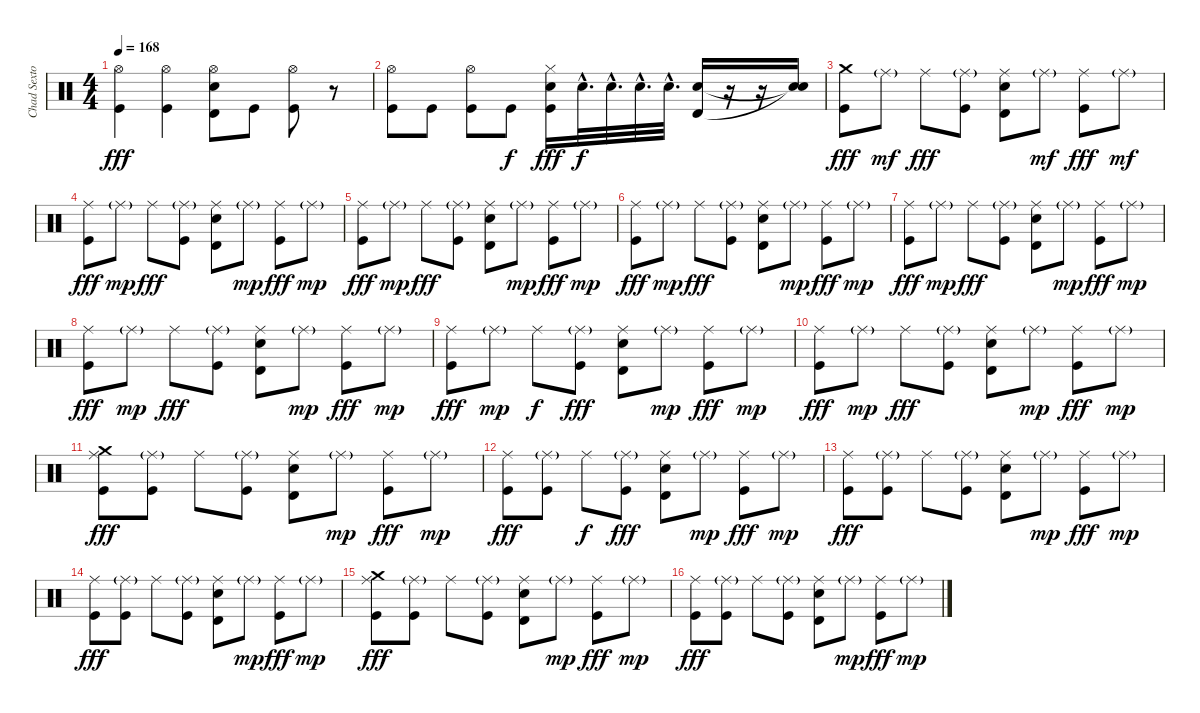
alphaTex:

\track ("Chad Sexton" "Chad Sexto") {instrument percussion}
\staff {score}
\articulation defaults
\ts (4 4)
\tempo 168
\clef neutral
\ks c
("Hi-Hat (open)" "Kick (hit)").4{dy fff} ("Hi-Hat (open)" "Kick (hit)").4 ("Hi-Hat (open)" "Electric Snare (hit)" "Timbale high (hit)").8 "Kick (hit)".8 ("Hi-Hat (open)" "Kick (hit)").8 r.8 |
("Hi-Hat (open)" "Kick (hit)").8 "Kick (hit)".8 ("Hi-Hat (open)" "Kick (hit)").8 "Kick (hit)".8{dy f} ("Hi-Hat (closed)" "Electric Snare (hit)" "Kick (hit)").16{dy fff} "Electric Snare (hit)"{hac}.32{d dy f} "Electric Snare (hit)"{hac}.32{d} "Electric Snare (hit)"{hac}.32{d} "Electric Snare (hit)"{hac}.32{d} ("Electric Snare (hit)" "Timbale high (hit)").16 r.16 r.16 ("Snare (hit)"{t} "Snare (hit)"{t}).16 |
("Crash medium (hit)" "Kick (hit)").8{dy fff} "Ride (middle)"{g}.8{dy mf} "Ride (middle)".8{dy fff} ("Ride (middle)"{g} "Kick (hit)").8 ("Ride (middle)" "Electric Snare (hit)" "Timbale high (hit)").8 "Ride (middle)"{g}.8{dy mf} ("Ride (middle)" "Kick (hit)").8{dy fff} "Ride (middle)"{g}.8{dy mf} |
("Ride (middle)" "Kick (hit)").8{dy fff} "Ride (middle)"{g}.8{dy mp} "Ride (middle)".8{dy fff} ("Ride (middle)"{g} "Kick (hit)").8 ("Ride (middle)" "Electric Snare (hit)" "Timbale high (hit)").8 "Ride (middle)"{g}.8{dy mp} ("Ride (middle)" "Kick (hit)").8{dy fff} "Ride (middle)"{g}.8{dy mp} |
("Ride (middle)" "Kick (hit)").8{dy fff} "Ride (middle)"{g}.8{dy mp} "Ride (middle)".8{dy fff} ("Ride (middle)"{g} "Kick (hit)").8 ("Ride (middle)" "Electric Snare (hit)" "Timbale high (hit)").8 "Ride (middle)"{g}.8{dy mp} ("Ride (middle)" "Kick (hit)").8{dy fff} "Ride (middle)"{g}.8{dy mp} |
("Ride (middle)" "Kick (hit)").8{dy fff} "Ride (middle)"{g}.8{dy mp} "Ride (middle)".8{dy fff} ("Ride (middle)"{g} "Kick (hit)").8 ("Ride (middle)" "Electric Snare (hit)" "Timbale high (hit)").8 "Ride (middle)"{g}.8{dy mp} ("Ride (middle)" "Kick (hit)").8{dy fff} "Ride (middle)"{g}.8{dy mp} |
("Ride (middle)" "Kick (hit)").8{dy fff} "Ride (middle)"{g}.8{dy mp} "Ride (middle)".8{dy fff} ("Ride (middle)"{g} "Kick (hit)").8 ("Ride (middle)" "Electric Snare (hit)" "Timbale high (hit)").8 "Ride (middle)"{g}.8{dy mp} ("Ride (middle)" "Kick (hit)").8{dy fff} "Ride (middle)"{g}.8{dy mp} |
("Ride (middle)" "Kick (hit)").8{dy fff} "Ride (middle)"{g}.8{dy mp} "Ride (middle)".8{dy fff} ("Ride (middle)"{g} "Kick (hit)").8 ("Ride (middle)" "Electric Snare (hit)" "Timbale high (hit)").8 "Ride (middle)"{g}.8{dy mp} ("Ride (middle)" "Kick (hit)").8{dy fff} "Ride (middle)"{g}.8{dy mp} |
("Ride (middle)" "Kick (hit)").8{dy fff} "Ride (middle)"{g}.8{dy mp} "Ride (middle)".8{dy f} ("Ride (middle)"{g} "Kick (hit)").8{dy fff} ("Ride (middle)" "Electric Snare (hit)" "Timbale high (hit)").8 "Ride (middle)"{g}.8{dy mp} ("Ride (middle)" "Kick (hit)").8{dy fff} "Ride (middle)"{g}.8{dy mp} |
("Ride (middle)" "Kick (hit)").8{dy fff} "Ride (middle)"{g}.8{dy mp} "Ride (middle)".8{dy fff} ("Ride (middle)"{g} "Kick (hit)").8 ("Ride (middle)" "Electric Snare (hit)" "Timbale high (hit)").8 "Ride (middle)"{g}.8{dy mp} ("Ride (middle)" "Kick (hit)").8{dy fff} "Ride (middle)"{g}.8{dy mp} |
("Crash medium (hit)" "Ride (middle)" "Kick (hit)").8{dy fff} ("Ride (middle)"{g} "Kick (hit)").8 "Ride (middle)".8 ("Ride (middle)"{g} "Kick (hit)").8 ("Ride (middle)" "Electric Snare (hit)" "Timbale high (hit)").8 "Ride (middle)"{g}.8{dy mp} ("Ride (middle)" "Kick (hit)").8{dy fff} "Ride (middle)"{g}.8{dy mp} |
("Ride (middle)" "Kick (hit)").8{dy fff} ("Ride (middle)"{g} "Kick (hit)").8 "Ride (middle)".8{dy f} ("Ride (middle)"{g} "Kick (hit)").8{dy fff} ("Ride (middle)" "Electric Snare (hit)" "Timbale high (hit)").8 "Ride (middle)"{g}.8{dy mp} ("Ride (middle)" "Kick (hit)").8{dy fff} "Ride (middle)"{g}.8{dy mp} |
("Ride (middle)" "Kick (hit)").8{dy fff} ("Ride (middle)"{g} "Kick (hit)").8 "Ride (middle)".8 ("Ride (middle)"{g} "Kick (hit)").8 ("Ride (middle)" "Electric Snare (hit)" "Timbale high (hit)").8 "Ride (middle)"{g}.8{dy mp} ("Ride (middle)" "Kick (hit)").8{dy fff} "Ride (middle)"{g}.8{dy mp} |
("Ride (middle)" "Kick (hit)").8{dy fff} ("Ride (middle)"{g} "Kick (hit)").8 "Ride (middle)".8 ("Ride (middle)"{g} "Kick (hit)").8 ("Ride (middle)" "Electric Snare (hit)" "Timbale high (hit)").8 "Ride (middle)"{g}.8{dy mp} ("Ride (middle)" "Kick (hit)").8{dy fff} "Ride (middle)"{g}.8{dy mp} |
("Crash medium (hit)" "Ride (middle)" "Kick (hit)").8{dy fff} ("Ride (middle)"{g} "Kick (hit)").8 "Ride (middle)".8 ("Ride (middle)"{g} "Kick (hit)").8 ("Ride (middle)" "Electric Snare (hit)" "Timbale high (hit)").8 "Ride (middle)"{g}.8{dy mp} ("Ride (middle)" "Kick (hit)").8{dy fff} "Ride (middle)"{g}.8{dy mp} |
("Ride (middle)" "Kick (hit)").8{dy fff} ("Ride (middle)"{g} "Kick (hit)").8 "Ride (middle)".8 ("Ride (middle)"{g} "Kick (hit)").8 ("Ride (middle)" "Electric Snare (hit)" "Timbale high (hit)").8 "Ride (middle)"{g}.8{dy mp} ("Ride (middle)" "Kick (hit)").8{dy fff} "Ride (middle)"{g}.8{dy mp}
